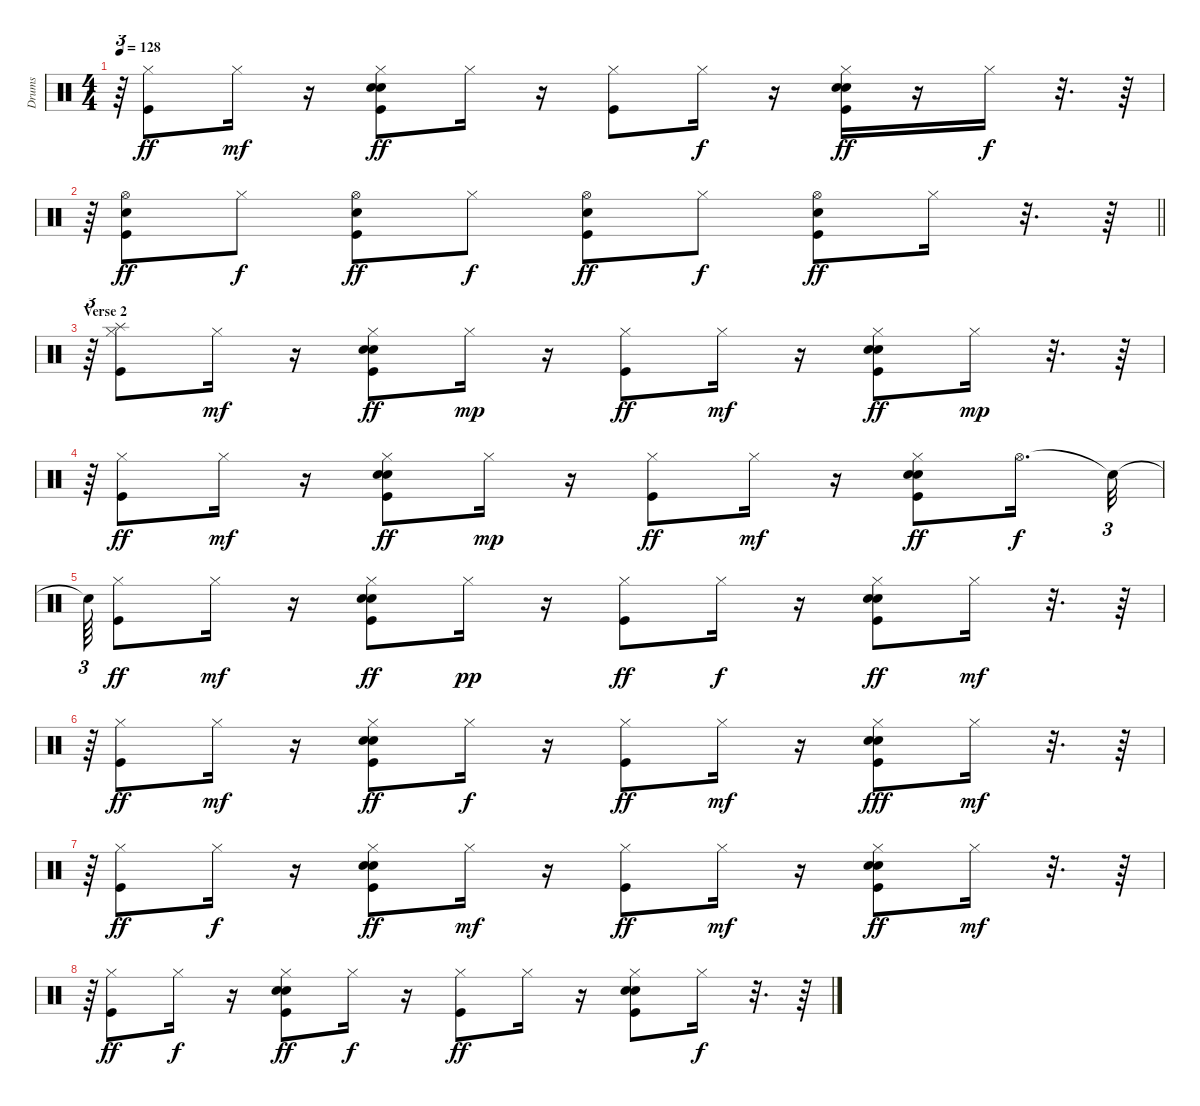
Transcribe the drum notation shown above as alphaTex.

\track ("Drums" "Drums") {instrument percussion}
\staff {score}
\articulation defaults
\ts (4 4)
\tempo 128
\clef neutral
\ks c
r.64{tu (3 2) dy f} ("Kick (hit)" "Hi-Hat (closed)").8{dy ff} "Hi-Hat (closed)".16{dy mf} r.16 ("Kick (hit)" "Electric Snare (hit)" "Hand Clap (hit)" "Hi-Hat (closed)").8{dy ff} "Hi-Hat (closed)".16 r.16 ("Kick (hit)" "Hi-Hat (closed)").8 "Hi-Hat (closed)".16{dy f} r.16 ("Kick (hit)" "Electric Snare (hit)" "Hand Clap (hit)" "Hi-Hat (closed)").16{dy ff} r.16 "Hi-Hat (closed)".16{dy f} r.32{d} r.64 |
\barLineRight lightlight
r.64{tu (3 2)} ("Kick (hit)" "Electric Snare (hit)" "Hi-Hat (open)").8{dy ff} "Hi-Hat (closed)".8{dy f} ("Kick (hit)" "Electric Snare (hit)" "Hi-Hat (open)").8{dy ff} "Hi-Hat (closed)".8{dy f} ("Kick (hit)" "Electric Snare (hit)" "Hi-Hat (open)").8{dy ff} "Hi-Hat (closed)".8{dy f} ("Kick (hit)" "Electric Snare (hit)" "Hi-Hat (open)").8{dy ff} "Hi-Hat (closed)".16 r.32{d} r.64 |
\section ("" "Verse 2")
r.64{tu (3 2)} ("Kick (hit)" "Hi-Hat (closed)" "Splash (hit)").8 "Hi-Hat (closed)".16{dy mf} r.16 ("Kick (hit)" "Electric Snare (hit)" "Hand Clap (hit)" "Hi-Hat (closed)").8{dy ff} "Hi-Hat (closed)".16{dy mp} r.16 ("Kick (hit)" "Hi-Hat (closed)").8{dy ff} "Hi-Hat (closed)".16{dy mf} r.16 ("Kick (hit)" "Electric Snare (hit)" "Hand Clap (hit)" "Hi-Hat (closed)").8{dy ff} "Hi-Hat (closed)".16{dy mp} r.32{d} r.64 |
r.64{tu (3 2)} ("Kick (hit)" "Hi-Hat (closed)").8{dy ff} "Hi-Hat (closed)".16{dy mf} r.16 ("Kick (hit)" "Electric Snare (hit)" "Hand Clap (hit)" "Hi-Hat (closed)").8{dy ff} "Hi-Hat (closed)".16{dy mp} r.16 ("Kick (hit)" "Hi-Hat (closed)").8{dy ff} "Hi-Hat (closed)".16{dy mf} r.16 ("Kick (hit)" "Electric Snare (hit)" "Hand Clap (hit)" "Hi-Hat (closed)").8{dy ff} "Hi-Hat (open)".16{d dy f} "Snare (hit)"{t}.32{tu (3 2)} |
"Snare (hit)"{t}.64{tu (3 2)} ("Kick (hit)" "Hi-Hat (closed)").8{dy ff} "Hi-Hat (closed)".16{dy mf} r.16 ("Kick (hit)" "Electric Snare (hit)" "Hand Clap (hit)" "Hi-Hat (closed)").8{dy ff} "Hi-Hat (closed)".16{dy pp} r.16 ("Kick (hit)" "Hi-Hat (closed)").8{dy ff} "Hi-Hat (closed)".16{dy f} r.16 ("Kick (hit)" "Electric Snare (hit)" "Hand Clap (hit)" "Hi-Hat (closed)").8{dy ff} "Hi-Hat (closed)".16{dy mf} r.32{d} r.64 |
r.64{tu (3 2)} ("Kick (hit)" "Hi-Hat (closed)").8{dy ff} "Hi-Hat (closed)".16{dy mf} r.16 ("Kick (hit)" "Electric Snare (hit)" "Hand Clap (hit)" "Hi-Hat (closed)").8{dy ff} "Hi-Hat (closed)".16{dy f} r.16 ("Kick (hit)" "Hi-Hat (closed)").8{dy ff} "Hi-Hat (closed)".16{dy mf} r.16 ("Kick (hit)" "Electric Snare (hit)" "Hand Clap (hit)" "Hi-Hat (closed)").8{dy fff} "Hi-Hat (closed)".16{dy mf} r.32{d} r.64 |
r.64{tu (3 2)} ("Kick (hit)" "Hi-Hat (closed)").8{dy ff} "Hi-Hat (closed)".16{dy f} r.16 ("Kick (hit)" "Electric Snare (hit)" "Hand Clap (hit)" "Hi-Hat (closed)").8{dy ff} "Hi-Hat (closed)".16{dy mf} r.16 ("Kick (hit)" "Hi-Hat (closed)").8{dy ff} "Hi-Hat (closed)".16{dy mf} r.16 ("Kick (hit)" "Electric Snare (hit)" "Hand Clap (hit)" "Hi-Hat (closed)").8{dy ff} "Hi-Hat (closed)".16{dy mf} r.32{d} r.64 |
r.64{tu (3 2)} ("Kick (hit)" "Hi-Hat (closed)").8{dy ff} "Hi-Hat (closed)".16{dy f} r.16 ("Kick (hit)" "Electric Snare (hit)" "Hand Clap (hit)" "Hi-Hat (closed)").8{dy ff} "Hi-Hat (closed)".16{dy f} r.16 ("Kick (hit)" "Hi-Hat (closed)").8{dy ff} "Hi-Hat (closed)".16 r.16 ("Kick (hit)" "Electric Snare (hit)" "Hand Clap (hit)" "Hi-Hat (closed)").8 "Hi-Hat (closed)".16{dy f} r.32{d} r.64
